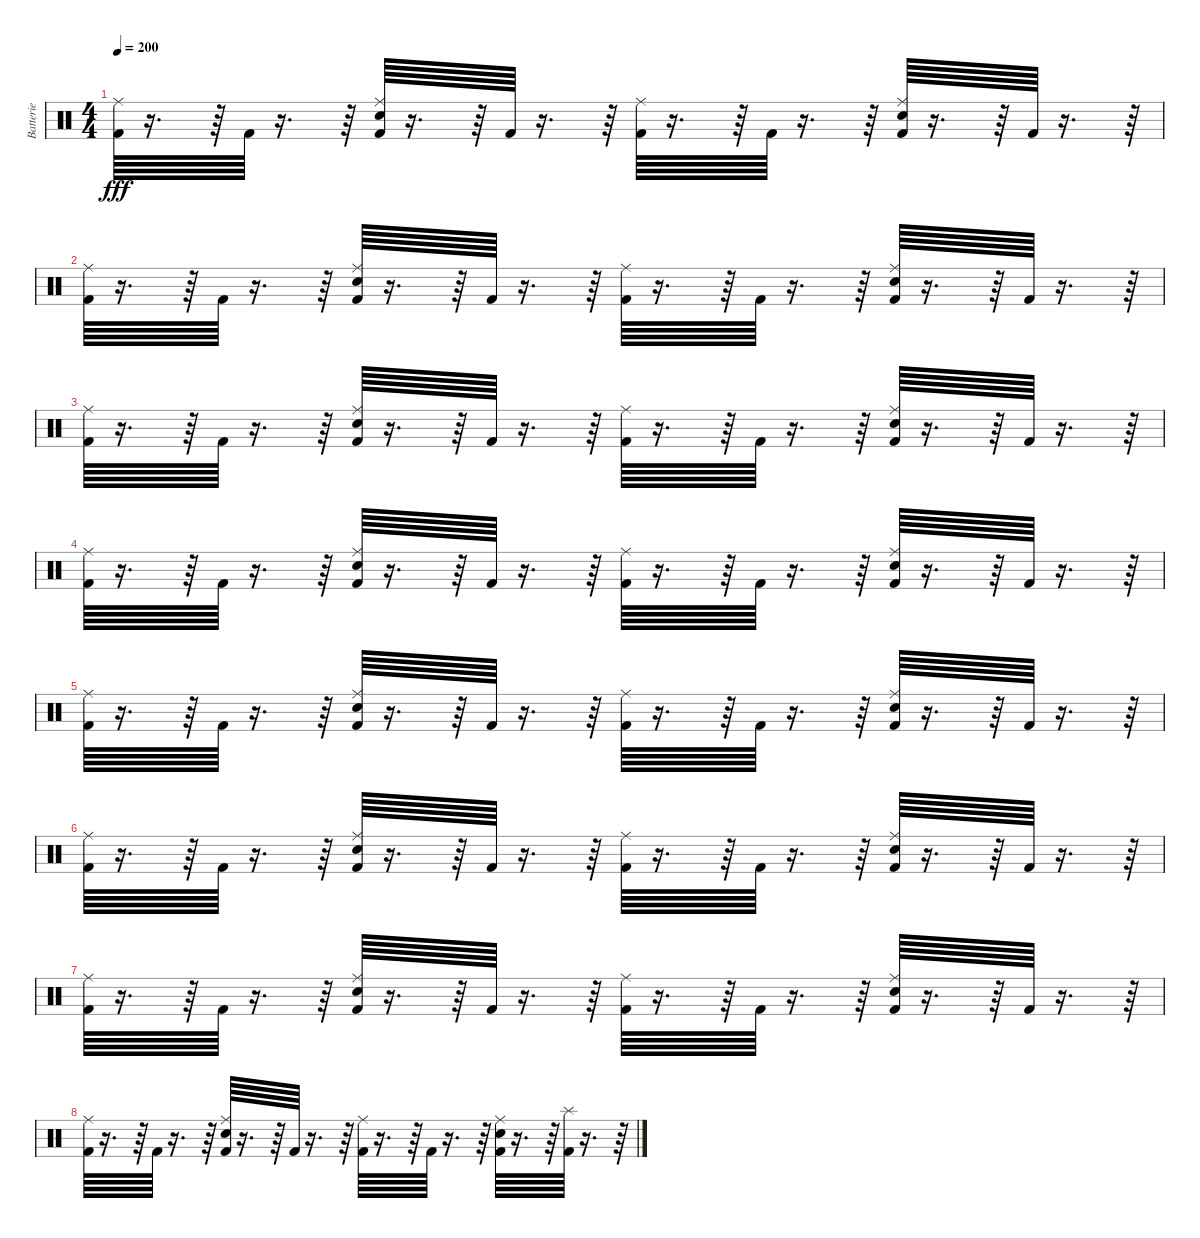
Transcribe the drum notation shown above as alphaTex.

\track ("Batterie" "Batterie") {instrument percussion}
\staff {score}
\articulation defaults
\ts (4 4)
\tempo 200
\clef neutral
\ks c
("Kick (hit) 2" "Ride (middle)").64{dy fff} r.16{d} r.64 "Kick (hit) 2".64 r.16{d} r.64 ("Kick (hit) 2" "Snare (hit) 2" "Ride (middle)").64 r.16{d} r.64 "Kick (hit) 2".64 r.16{d} r.64 ("Kick (hit) 2" "Ride (middle)").64 r.16{d} r.64 "Kick (hit) 2".64 r.16{d} r.64 ("Kick (hit) 2" "Snare (hit) 2" "Ride (middle)").64 r.16{d} r.64 "Kick (hit) 2".64 r.16{d} r.64 |
("Kick (hit) 2" "Ride (middle)").64 r.16{d} r.64 "Kick (hit) 2".64 r.16{d} r.64 ("Kick (hit) 2" "Snare (hit) 2" "Ride (middle)").64 r.16{d} r.64 "Kick (hit) 2".64 r.16{d} r.64 ("Kick (hit) 2" "Ride (middle)").64 r.16{d} r.64 "Kick (hit) 2".64 r.16{d} r.64 ("Kick (hit) 2" "Snare (hit) 2" "Ride (middle)").64 r.16{d} r.64 "Kick (hit) 2".64 r.16{d} r.64 |
("Kick (hit) 2" "Ride (middle)").64 r.16{d} r.64 "Kick (hit) 2".64 r.16{d} r.64 ("Kick (hit) 2" "Snare (hit) 2" "Ride (middle)").64 r.16{d} r.64 "Kick (hit) 2".64 r.16{d} r.64 ("Kick (hit) 2" "Ride (middle)").64 r.16{d} r.64 "Kick (hit) 2".64 r.16{d} r.64 ("Kick (hit) 2" "Snare (hit) 2" "Ride (middle)").64 r.16{d} r.64 "Kick (hit) 2".64 r.16{d} r.64 |
("Kick (hit) 2" "Ride (middle)").64 r.16{d} r.64 "Kick (hit) 2".64 r.16{d} r.64 ("Kick (hit) 2" "Snare (hit) 2" "Ride (middle)").64 r.16{d} r.64 "Kick (hit) 2".64 r.16{d} r.64 ("Kick (hit) 2" "Ride (middle)").64 r.16{d} r.64 "Kick (hit) 2".64 r.16{d} r.64 ("Kick (hit) 2" "Snare (hit) 2" "Ride (middle)").64 r.16{d} r.64 "Kick (hit) 2".64 r.16{d} r.64 |
("Kick (hit) 2" "Ride (middle)").64 r.16{d} r.64 "Kick (hit) 2".64 r.16{d} r.64 ("Kick (hit) 2" "Snare (hit) 2" "Ride (middle)").64 r.16{d} r.64 "Kick (hit) 2".64 r.16{d} r.64 ("Kick (hit) 2" "Ride (middle)").64 r.16{d} r.64 "Kick (hit) 2".64 r.16{d} r.64 ("Kick (hit) 2" "Snare (hit) 2" "Ride (middle)").64 r.16{d} r.64 "Kick (hit) 2".64 r.16{d} r.64 |
("Kick (hit) 2" "Ride (middle)").64 r.16{d} r.64 "Kick (hit) 2".64 r.16{d} r.64 ("Kick (hit) 2" "Snare (hit) 2" "Ride (middle)").64 r.16{d} r.64 "Kick (hit) 2".64 r.16{d} r.64 ("Kick (hit) 2" "Ride (middle)").64 r.16{d} r.64 "Kick (hit) 2".64 r.16{d} r.64 ("Kick (hit) 2" "Snare (hit) 2" "Ride (middle)").64 r.16{d} r.64 "Kick (hit) 2".64 r.16{d} r.64 |
("Kick (hit) 2" "Ride (middle)").64 r.16{d} r.64 "Kick (hit) 2".64 r.16{d} r.64 ("Kick (hit) 2" "Snare (hit) 2" "Ride (middle)").64 r.16{d} r.64 "Kick (hit) 2".64 r.16{d} r.64 ("Kick (hit) 2" "Ride (middle)").64 r.16{d} r.64 "Kick (hit) 2".64 r.16{d} r.64 ("Kick (hit) 2" "Snare (hit) 2" "Ride (middle)").64 r.16{d} r.64 "Kick (hit) 2".64 r.16{d} r.64 |
("Kick (hit) 2" "Ride (middle)").64 r.16{d} r.64 "Kick (hit) 2".64 r.16{d} r.64 ("Kick (hit) 2" "Snare (hit) 2" "Ride (middle)").64 r.16{d} r.64 "Kick (hit) 2".64 r.16{d} r.64 ("Kick (hit) 2" "Ride (middle)").64 r.16{d} r.64 "Kick (hit) 2".64 r.16{d} r.64 ("Kick (hit) 2" "Snare (hit) 2" "Ride (middle)").64 r.16{d} r.64 ("Kick (hit) 2" "Splash (hit)").64 r.16{d} r.64
